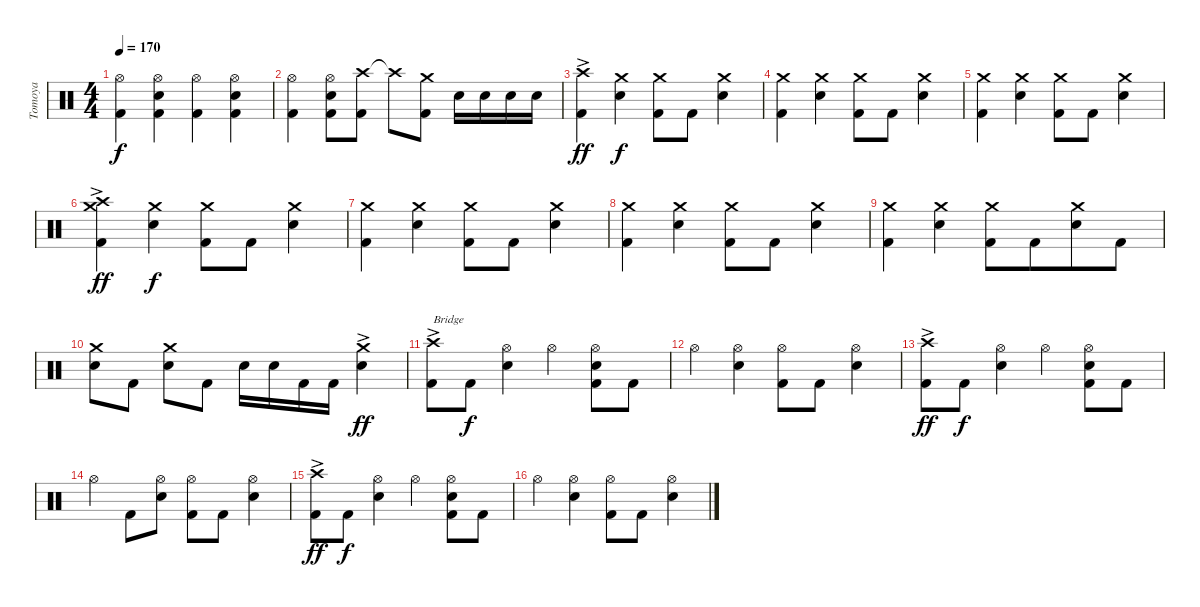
\track ("Tomoya" "Tomoya") {instrument percussion}
\staff {score}
\articulation defaults
\ts (4 4)
\tempo 170
\clef neutral
\ks c
("Hi-Hat (open)" "Kick (hit) 2").4{dy f} ("Hi-Hat (open)" "Snare (hit) 2" "Kick (hit) 2").4 ("Hi-Hat (open)" "Kick (hit) 2").4 ("Hi-Hat (open)" "Snare (hit) 2" "Kick (hit) 2").4 |
("Hi-Hat (open)" "Kick (hit) 2").4 ("Hi-Hat (open)" "Snare (hit) 2" "Kick (hit) 2").8 ("Crash high (hit)" "Kick (hit) 2").8{beam split} "Crash high (hit)"{t}.8 ("Crash medium (hit)" "Kick (hit) 2").8 "Snare (hit) 2".16 "Snare (hit) 2".16 "Snare (hit) 2".16 "Snare (hit) 2".16 |
("Crash high (hit)"{ac} "Kick (hit) 2"{ac}).4{dy ff} ("Crash medium (hit)" "Snare (hit) 2").4{dy f} ("Crash medium (hit)" "Kick (hit) 2").8 "Kick (hit) 2".8 ("Crash medium (hit)" "Snare (hit) 2").4 |
("Crash medium (hit)" "Kick (hit) 2").4 ("Crash medium (hit)" "Snare (hit) 2").4 ("Crash medium (hit)" "Kick (hit) 2").8 "Kick (hit) 2".8 ("Crash medium (hit)" "Snare (hit) 2").4 |
("Crash medium (hit)" "Kick (hit) 2").4 ("Crash medium (hit)" "Snare (hit) 2").4 ("Crash medium (hit)" "Kick (hit) 2").8 "Kick (hit) 2".8 ("Crash medium (hit)" "Snare (hit) 2").4 |
("Crash medium (hit)"{ac} "Crash high (hit)" "Kick (hit) 2"{ac}).4{dy ff} ("Crash medium (hit)" "Snare (hit) 2").4{dy f} ("Crash medium (hit)" "Kick (hit) 2").8 "Kick (hit) 2".8 ("Crash medium (hit)" "Snare (hit) 2").4 |
("Crash medium (hit)" "Kick (hit) 2").4 ("Crash medium (hit)" "Snare (hit) 2").4 ("Crash medium (hit)" "Kick (hit) 2").8 "Kick (hit) 2".8 ("Crash medium (hit)" "Snare (hit) 2").4 |
("Crash medium (hit)" "Kick (hit) 2").4 ("Crash medium (hit)" "Snare (hit) 2").4 ("Crash medium (hit)" "Kick (hit) 2").8 "Kick (hit) 2".8 ("Crash medium (hit)" "Snare (hit) 2").4 |
("Crash medium (hit)" "Kick (hit) 2").4 ("Crash medium (hit)" "Snare (hit) 2").4 ("Crash medium (hit)" "Kick (hit) 2").8 "Kick (hit) 2".8{beam merge} ("Crash medium (hit)" "Snare (hit) 2").8 "Kick (hit) 2".8 |
("Crash medium (hit)" "Snare (hit) 2").8 "Kick (hit) 2".8 ("Crash medium (hit)" "Snare (hit) 2").8 "Kick (hit) 2".8 "Snare (hit) 2".16{beam Down} "Snare (hit) 2".16{beam Down} "Kick (hit) 2".16{beam Down} "Kick (hit) 2".16{beam Down} ("Crash medium (hit)"{ac} "Snare (hit) 2"{ac}).4{dy ff} |
("Crash high (hit)"{ac} "Kick (hit) 2"{ac}).8{txt "Bridge"} "Kick (hit) 2".8{dy f} ("Hi-Hat (open)" "Snare (hit) 2").4 "Hi-Hat (open)".4 ("Hi-Hat (open)" "Snare (hit) 2" "Kick (hit) 2").8 "Kick (hit) 2".8 |
"Hi-Hat (open)".4 ("Hi-Hat (open)" "Snare (hit) 2").4 ("Hi-Hat (open)" "Kick (hit) 2").8 "Kick (hit) 2".8 ("Hi-Hat (open)" "Snare (hit) 2").4 |
("Crash high (hit)"{ac} "Kick (hit) 2"{ac}).8{dy ff} "Kick (hit) 2".8{dy f} ("Hi-Hat (open)" "Snare (hit) 2").4 "Hi-Hat (open)".4 ("Hi-Hat (open)" "Snare (hit) 2" "Kick (hit) 2").8 "Kick (hit) 2".8 |
"Hi-Hat (open)".4 "Kick (hit) 2".8 ("Hi-Hat (open)" "Snare (hit) 2").8 ("Hi-Hat (open)" "Kick (hit) 2").8 "Kick (hit) 2".8 ("Hi-Hat (open)" "Snare (hit) 2").4 |
("Crash high (hit)"{ac} "Kick (hit) 2"{ac}).8{dy ff} "Kick (hit) 2".8{dy f} ("Hi-Hat (open)" "Snare (hit) 2").4 "Hi-Hat (open)".4 ("Hi-Hat (open)" "Snare (hit) 2" "Kick (hit) 2").8 "Kick (hit) 2".8 |
"Hi-Hat (open)".4 ("Hi-Hat (open)" "Snare (hit) 2").4 ("Hi-Hat (open)" "Kick (hit) 2").8 "Kick (hit) 2".8 ("Hi-Hat (open)" "Snare (hit) 2").4
